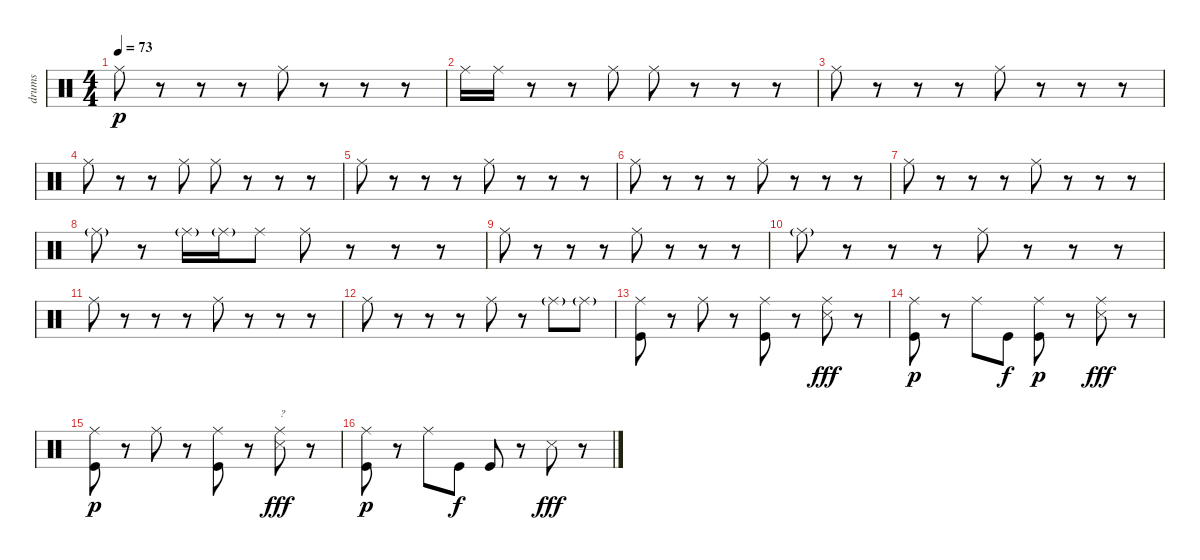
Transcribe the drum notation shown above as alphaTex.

\track ("drums" "drums") {instrument percussion}
\staff {score}
\articulation defaults
\ts (4 4)
\tempo 73
\clef neutral
\ks c "Ride (middle)".8{dy p}
r.8 r.8 r.8 "Ride (middle)".8 r.8 r.8 r.8 |
"Ride (middle)".16 "Ride (middle)".16 r.8 r.8 "Ride (middle)".8 "Ride (middle)".8 r.8 r.8 r.8 |
"Ride (middle)".8 r.8 r.8 r.8 "Ride (middle)".8 r.8 r.8 r.8 |
"Ride (middle)".8 r.8 r.8 "Ride (middle)".8 "Ride (middle)".8 r.8 r.8 r.8 |
"Ride (middle)".8 r.8 r.8 r.8 "Ride (middle)".8 r.8 r.8 r.8 |
"Ride (middle)".8 r.8 r.8 r.8 "Ride (middle)".8 r.8 r.8 r.8 |
"Ride (middle)".8 r.8 r.8 r.8 "Ride (middle)".8 r.8 r.8 r.8 |
"Ride (middle)"{g}.8 r.8 "Ride (middle)"{g}.16 "Ride (middle)"{g}.16 "Ride (middle)".8 "Ride (middle)".8 r.8 r.8 r.8 |
"Ride (middle)".8 r.8 r.8 r.8 "Ride (middle)".8 r.8 r.8 r.8 |
"Ride (middle)"{g}.8 r.8 r.8 r.8 "Ride (middle)".8 r.8 r.8 r.8 |
"Ride (middle)".8 r.8 r.8 r.8 "Ride (middle)".8 r.8 r.8 r.8 |
"Ride (middle)".8 r.8 r.8 r.8 "Ride (middle)".8 r.8 "Ride (middle)"{g}.8 "Ride (middle)"{g}.8 |
("Ride (middle)" "Kick (hit)").8 r.8 "Ride (middle)".8 r.8 ("Ride (middle)" "Kick (hit)").8 r.8 ("Ride (middle)" "Metronome (hit)").8{dy fff} r.8 |
("Ride (middle)" "Kick (hit)").8{dy p} r.8 "Ride (middle)".8 "Kick (hit)".8{dy f} ("Ride (middle)" "Kick (hit)").8{dy p} r.8 ("Ride (middle)" "Metronome (hit)").8{dy fff} r.8 |
("Ride (middle)" "Kick (hit)").8{dy p} r.8 "Ride (middle)".8 r.8 ("Ride (middle)" "Kick (hit)").8 r.8 ("Ride (middle)" "Metronome (hit)").8{txt "?" dy fff} r.8 |
("Ride (middle)" "Kick (hit)").8{dy p} r.8 "Ride (middle)".8 "Kick (hit)".8{dy f} "Kick (hit)".8 r.8 "Metronome (hit)".8{dy fff} r.8
